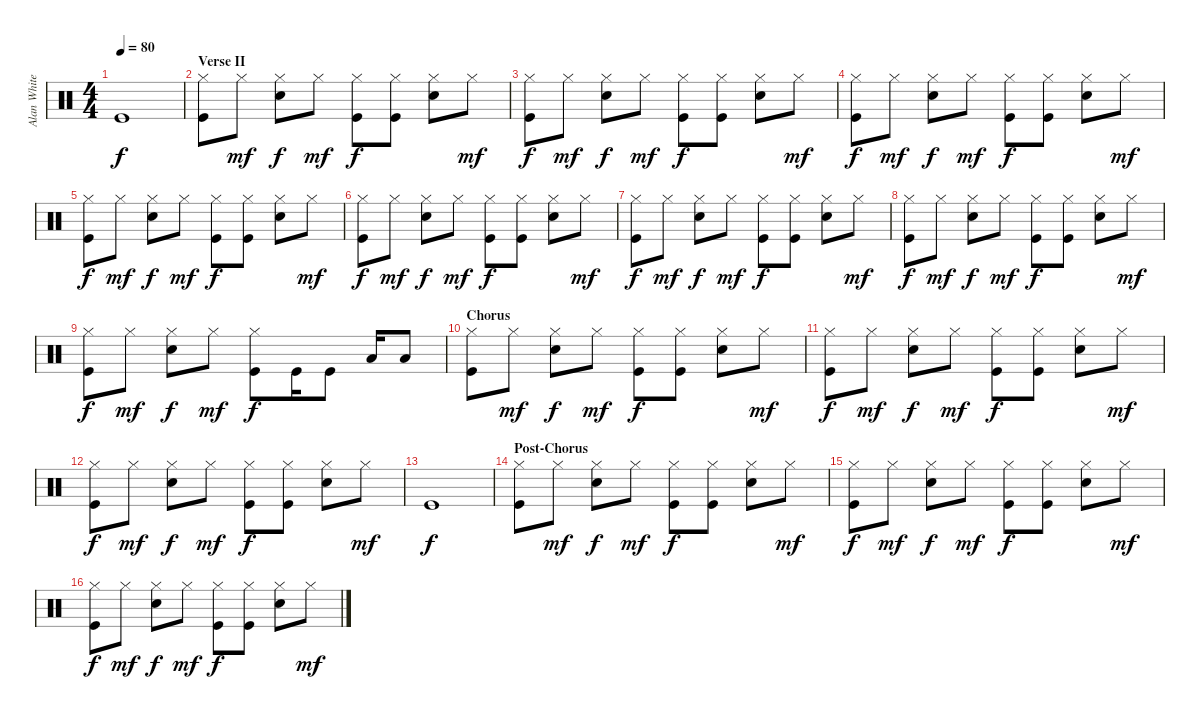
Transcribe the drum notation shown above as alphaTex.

\track ("Alan White" "Alan White") {instrument percussion}
\staff {score}
\articulation defaults
\ts (4 4)
\tempo 80
\clef neutral
\ks c "Kick (hit)".1{dy f}
|
\section ("" "Verse II")
("Hi-Hat (closed)" "Kick (hit)").8 "Hi-Hat (closed)".8{dy mf} ("Hi-Hat (closed)" "Snare (hit) 2").8{dy f} "Hi-Hat (closed)".8{dy mf} ("Hi-Hat (closed)" "Kick (hit)").8{dy f} ("Hi-Hat (closed)" "Kick (hit)").8 ("Hi-Hat (closed)" "Snare (hit) 2").8 "Hi-Hat (closed)".8{dy mf} |
("Hi-Hat (closed)" "Kick (hit)").8{dy f} "Hi-Hat (closed)".8{dy mf} ("Hi-Hat (closed)" "Snare (hit) 2").8{dy f} "Hi-Hat (closed)".8{dy mf} ("Hi-Hat (closed)" "Kick (hit)").8{dy f} ("Hi-Hat (closed)" "Kick (hit)").8 ("Hi-Hat (closed)" "Snare (hit) 2").8 "Hi-Hat (closed)".8{dy mf} |
("Hi-Hat (closed)" "Kick (hit)").8{dy f} "Hi-Hat (closed)".8{dy mf} ("Hi-Hat (closed)" "Snare (hit) 2").8{dy f} "Hi-Hat (closed)".8{dy mf} ("Hi-Hat (closed)" "Kick (hit)").8{dy f} ("Hi-Hat (closed)" "Kick (hit)").8 ("Hi-Hat (closed)" "Snare (hit) 2").8 "Hi-Hat (closed)".8{dy mf} |
("Hi-Hat (closed)" "Kick (hit)").8{dy f} "Hi-Hat (closed)".8{dy mf} ("Hi-Hat (closed)" "Snare (hit) 2").8{dy f} "Hi-Hat (closed)".8{dy mf} ("Hi-Hat (closed)" "Kick (hit)").8{dy f} ("Hi-Hat (closed)" "Kick (hit)").8 ("Hi-Hat (closed)" "Snare (hit) 2").8 "Hi-Hat (closed)".8{dy mf} |
("Hi-Hat (closed)" "Kick (hit)").8{dy f} "Hi-Hat (closed)".8{dy mf} ("Hi-Hat (closed)" "Snare (hit) 2").8{dy f} "Hi-Hat (closed)".8{dy mf} ("Hi-Hat (closed)" "Kick (hit)").8{dy f} ("Hi-Hat (closed)" "Kick (hit)").8 ("Hi-Hat (closed)" "Snare (hit) 2").8 "Hi-Hat (closed)".8{dy mf} |
("Hi-Hat (closed)" "Kick (hit)").8{dy f} "Hi-Hat (closed)".8{dy mf} ("Hi-Hat (closed)" "Snare (hit) 2").8{dy f} "Hi-Hat (closed)".8{dy mf} ("Hi-Hat (closed)" "Kick (hit)").8{dy f} ("Hi-Hat (closed)" "Kick (hit)").8 ("Hi-Hat (closed)" "Snare (hit) 2").8 "Hi-Hat (closed)".8{dy mf} |
("Hi-Hat (closed)" "Kick (hit)").8{dy f} "Hi-Hat (closed)".8{dy mf} ("Hi-Hat (closed)" "Snare (hit) 2").8{dy f} "Hi-Hat (closed)".8{dy mf} ("Hi-Hat (closed)" "Kick (hit)").8{dy f} ("Hi-Hat (closed)" "Kick (hit)").8 ("Hi-Hat (closed)" "Snare (hit) 2").8 "Hi-Hat (closed)".8{dy mf} |
("Hi-Hat (closed)" "Kick (hit)").8{dy f} "Hi-Hat (closed)".8{dy mf} ("Hi-Hat (closed)" "Snare (hit) 2").8{dy f} "Hi-Hat (closed)".8{dy mf} ("Hi-Hat (closed)" "Kick (hit)").8{dy f} "Kick (hit)".16 "Kick (hit)".8 "Low Floor Tom (hit)".16 "Low Floor Tom (hit)".8 |
\section ("" "Chorus")
("Hi-Hat (closed)" "Kick (hit)").8 "Hi-Hat (closed)".8{dy mf} ("Hi-Hat (closed)" "Snare (hit) 2").8{dy f} "Hi-Hat (closed)".8{dy mf} ("Hi-Hat (closed)" "Kick (hit)").8{dy f} ("Hi-Hat (closed)" "Kick (hit)").8 ("Hi-Hat (closed)" "Snare (hit) 2").8 "Hi-Hat (closed)".8{dy mf} |
("Hi-Hat (closed)" "Kick (hit)").8{dy f} "Hi-Hat (closed)".8{dy mf} ("Hi-Hat (closed)" "Snare (hit) 2").8{dy f} "Hi-Hat (closed)".8{dy mf} ("Hi-Hat (closed)" "Kick (hit)").8{dy f} ("Hi-Hat (closed)" "Kick (hit)").8 ("Hi-Hat (closed)" "Snare (hit) 2").8 "Hi-Hat (closed)".8{dy mf} |
("Hi-Hat (closed)" "Kick (hit)").8{dy f} "Hi-Hat (closed)".8{dy mf} ("Hi-Hat (closed)" "Snare (hit) 2").8{dy f} "Hi-Hat (closed)".8{dy mf} ("Hi-Hat (closed)" "Kick (hit)").8{dy f} ("Hi-Hat (closed)" "Kick (hit)").8 ("Hi-Hat (closed)" "Snare (hit) 2").8 "Hi-Hat (closed)".8{dy mf} |
"Kick (hit)".1{dy f} |
\section ("" "Post-Chorus")
("Hi-Hat (closed)" "Kick (hit)").8 "Hi-Hat (closed)".8{dy mf} ("Hi-Hat (closed)" "Snare (hit) 2").8{dy f} "Hi-Hat (closed)".8{dy mf} ("Hi-Hat (closed)" "Kick (hit)").8{dy f} ("Hi-Hat (closed)" "Kick (hit)").8 ("Hi-Hat (closed)" "Snare (hit) 2").8 "Hi-Hat (closed)".8{dy mf} |
("Hi-Hat (closed)" "Kick (hit)").8{dy f} "Hi-Hat (closed)".8{dy mf} ("Hi-Hat (closed)" "Snare (hit) 2").8{dy f} "Hi-Hat (closed)".8{dy mf} ("Hi-Hat (closed)" "Kick (hit)").8{dy f} ("Hi-Hat (closed)" "Kick (hit)").8 ("Hi-Hat (closed)" "Snare (hit) 2").8 "Hi-Hat (closed)".8{dy mf} |
("Hi-Hat (closed)" "Kick (hit)").8{dy f} "Hi-Hat (closed)".8{dy mf} ("Hi-Hat (closed)" "Snare (hit) 2").8{dy f} "Hi-Hat (closed)".8{dy mf} ("Hi-Hat (closed)" "Kick (hit)").8{dy f} ("Hi-Hat (closed)" "Kick (hit)").8 ("Hi-Hat (closed)" "Snare (hit) 2").8 "Hi-Hat (closed)".8{dy mf}
